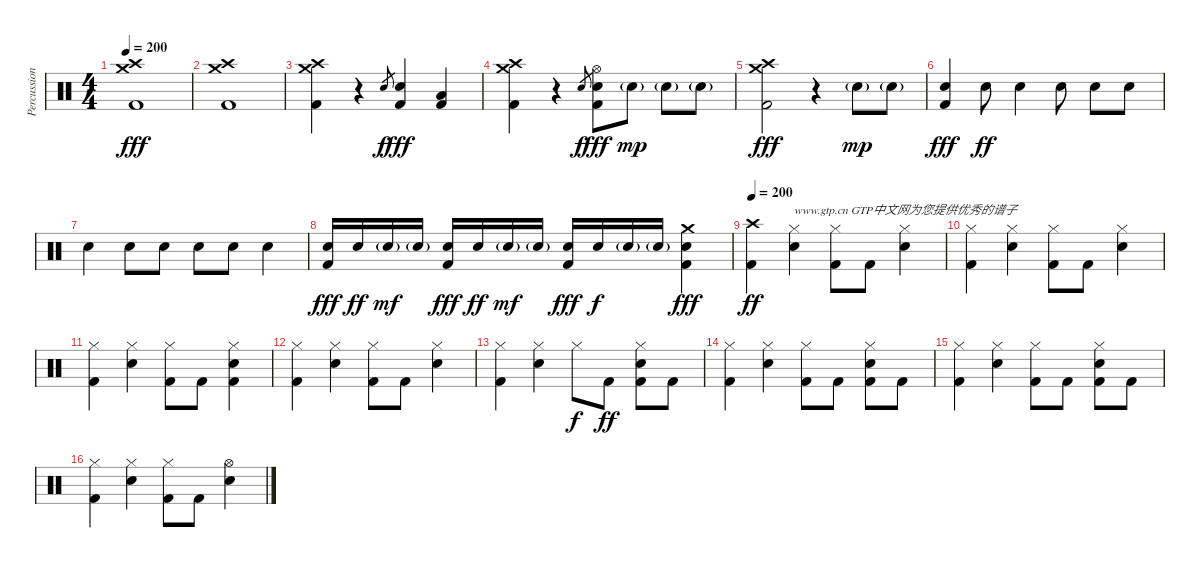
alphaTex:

\track ("Percussions 1" "Percussion") {instrument percussion}
\staff {score}
\articulation defaults
\ts (4 4)
\tempo 200
\clef neutral
\ks c
("Crash high (hit)" "Crash medium (hit)" "Kick (hit) 2").1{dy fff} |
("Crash high (hit)" "Crash medium (hit)" "Kick (hit) 2").1 |
("Crash high (hit)" "Crash medium (hit)" "Kick (hit) 2").4 r.4 "Snare (hit) 2".8{gr dy f} ("Snare (hit) 2" "Kick (hit) 2").4{dy fff} ("Low Tom (hit)" "Kick (hit) 2").4 |
("Crash high (hit)" "Crash medium (hit)" "Kick (hit) 2").4 r.4 "Snare (hit) 2".8{gr dy f} ("Hi-Hat (open)" "Snare (hit) 2" "Kick (hit) 2").8{dy fff} "Snare (hit) 2"{g}.8{dy mp} "Snare (hit) 2"{g}.8 "Snare (hit) 2"{g}.8 |
("Crash high (hit)" "Crash medium (hit)" "Kick (hit) 2").2{dy fff} r.4 "Snare (hit) 2"{g}.8{dy mp} "Snare (hit) 2"{g}.8 |
("Snare (hit) 2" "Kick (hit) 2").4{dy fff} "Snare (hit) 2".8{dy ff} "Snare (hit) 2".4 "Snare (hit) 2".8 "Snare (hit) 2".8 "Snare (hit) 2".8 |
"Snare (hit) 2".4 "Snare (hit) 2".8 "Snare (hit) 2".8 "Snare (hit) 2".8 "Snare (hit) 2".8 "Snare (hit) 2".4 |
("Snare (hit) 2" "Kick (hit) 2").16{dy fff} "Snare (hit) 2".16{dy ff} "Snare (hit) 2"{g}.16{dy mf} "Snare (hit) 2"{g}.16 ("Snare (hit) 2" "Kick (hit) 2").16{dy fff} "Snare (hit) 2".16{dy ff} "Snare (hit) 2"{g}.16{dy mf} "Snare (hit) 2"{g}.16 ("Snare (hit) 2" "Kick (hit) 2").16{dy fff} "Snare (hit) 2".16{dy f} "Snare (hit) 2"{g}.16 "Snare (hit) 2"{g}.16 ("Crash medium (hit)" "Snare (hit) 2" "Kick (hit) 2").4{dy fff} |
\tempo 200
("Crash high (hit)" "Kick (hit) 2").4{dy ff} ("Hi-Hat (closed)" "Snare (hit) 2").4{txt "www.gtp.cn GTP中文网为您提供优秀的谱子"} ("Hi-Hat (closed)" "Kick (hit) 2").8 "Kick (hit) 2".8 ("Hi-Hat (closed)" "Snare (hit) 2").4 |
("Hi-Hat (closed)" "Kick (hit) 2").4 ("Hi-Hat (closed)" "Snare (hit) 2").4 ("Hi-Hat (closed)" "Kick (hit) 2").8 "Kick (hit) 2".8 ("Hi-Hat (closed)" "Snare (hit) 2").4 |
("Hi-Hat (closed)" "Kick (hit) 2").4 ("Hi-Hat (closed)" "Snare (hit) 2").4 ("Hi-Hat (closed)" "Kick (hit) 2").8 "Kick (hit) 2".8 ("Hi-Hat (closed)" "Snare (hit) 2" "Kick (hit) 2").4 |
("Hi-Hat (closed)" "Kick (hit) 2").4 ("Hi-Hat (closed)" "Snare (hit) 2").4 ("Hi-Hat (closed)" "Kick (hit) 2").8 "Kick (hit) 2".8 ("Hi-Hat (closed)" "Snare (hit) 2").4 |
("Hi-Hat (closed)" "Kick (hit) 2").4 ("Hi-Hat (closed)" "Snare (hit) 2").4 "Hi-Hat (closed)".8{dy f} "Kick (hit) 2".8{dy ff} ("Hi-Hat (closed)" "Snare (hit) 2" "Kick (hit) 2").8 "Kick (hit) 2".8 |
("Hi-Hat (closed)" "Kick (hit) 2").4 ("Hi-Hat (closed)" "Snare (hit) 2").4 ("Hi-Hat (closed)" "Kick (hit) 2").8 "Kick (hit) 2".8 ("Hi-Hat (closed)" "Snare (hit) 2" "Kick (hit) 2").8 "Kick (hit) 2".8 |
("Hi-Hat (closed)" "Kick (hit) 2").4 ("Hi-Hat (closed)" "Snare (hit) 2").4 ("Hi-Hat (closed)" "Kick (hit) 2").8 "Kick (hit) 2".8 ("Hi-Hat (closed)" "Snare (hit) 2" "Kick (hit) 2").8 "Kick (hit) 2".8 |
("Hi-Hat (closed)" "Kick (hit) 2").4 ("Hi-Hat (closed)" "Snare (hit) 2").4 ("Hi-Hat (closed)" "Kick (hit) 2").8 "Kick (hit) 2".8 ("Hi-Hat (open)" "Snare (hit) 2").4
